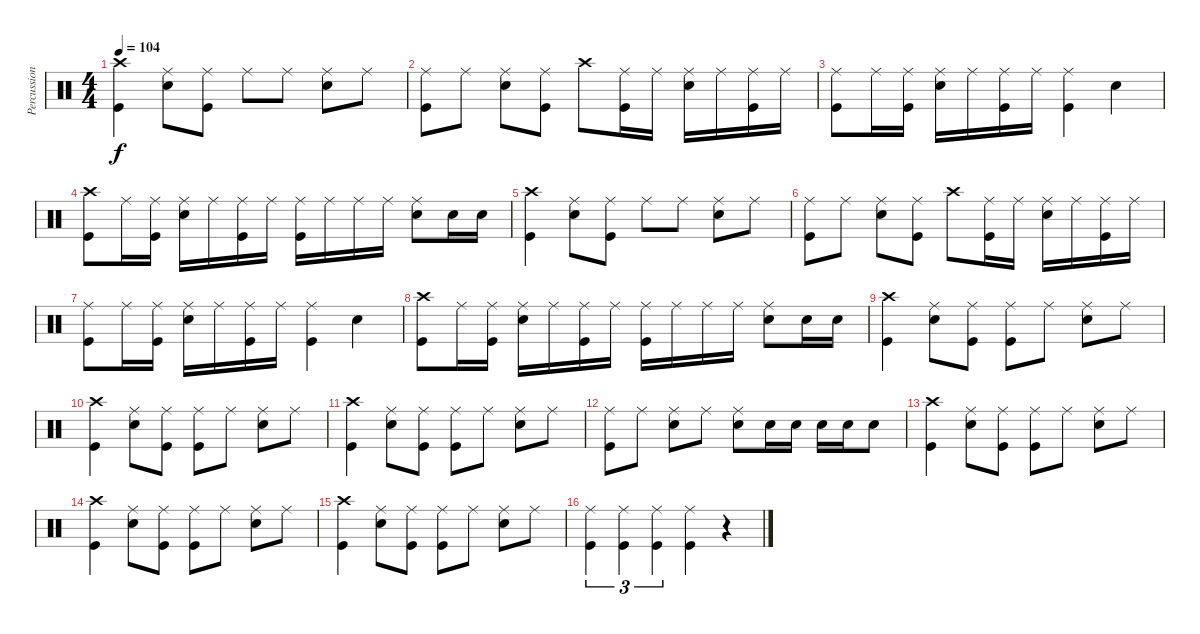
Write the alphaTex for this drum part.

\track ("Percussion" "Percussion") {instrument percussion}
\staff {score}
\articulation defaults
\ts (4 4)
\tempo 104
\clef neutral
\ks c
("Crash high (hit)" "Kick (hit)").4{dy f} ("Ride (middle)" "Snare (hit) 2").8 ("Ride (middle)" "Kick (hit)").8 "Ride (middle)".8 "Ride (middle)".8 ("Ride (middle)" "Snare (hit) 2").8 "Ride (middle)".8 |
("Ride (middle)" "Kick (hit)").8 "Ride (middle)".8 ("Ride (middle)" "Snare (hit) 2").8 ("Ride (middle)" "Kick (hit)").8 "Crash high (hit)".8 ("Ride (middle)" "Kick (hit)").16 "Ride (middle)".16 ("Ride (middle)" "Snare (hit) 2").16 "Ride (middle)".16 ("Ride (middle)" "Kick (hit)").16 "Ride (middle)".16 |
("Ride (middle)" "Kick (hit)").8 "Ride (middle)".16 ("Ride (middle)" "Kick (hit)").16 ("Ride (middle)" "Snare (hit) 2").16 "Ride (middle)".16 ("Ride (middle)" "Kick (hit)").16 "Ride (middle)".16 ("Ride (middle)" "Kick (hit)").4 "Snare (hit) 2".4 |
("Crash high (hit)" "Kick (hit)").8 "Ride (middle)".16 ("Ride (middle)" "Kick (hit)").16 ("Ride (middle)" "Snare (hit) 2").16 "Ride (middle)".16 ("Ride (middle)" "Kick (hit)").16 "Ride (middle)".16 ("Ride (middle)" "Kick (hit)").16 "Ride (middle)".16 "Ride (middle)".16 "Ride (middle)".16 ("Ride (middle)" "Snare (hit) 2").8 "Snare (hit) 2".16 "Snare (hit) 2".16 |
("Crash high (hit)" "Kick (hit)").4 ("Ride (middle)" "Snare (hit) 2").8 ("Ride (middle)" "Kick (hit)").8 "Ride (middle)".8 "Ride (middle)".8 ("Ride (middle)" "Snare (hit) 2").8 "Ride (middle)".8 |
("Ride (middle)" "Kick (hit)").8 "Ride (middle)".8 ("Ride (middle)" "Snare (hit) 2").8 ("Ride (middle)" "Kick (hit)").8 "Crash high (hit)".8 ("Ride (middle)" "Kick (hit)").16 "Ride (middle)".16 ("Ride (middle)" "Snare (hit) 2").16 "Ride (middle)".16 ("Ride (middle)" "Kick (hit)").16 "Ride (middle)".16 |
("Ride (middle)" "Kick (hit)").8 "Ride (middle)".16 ("Ride (middle)" "Kick (hit)").16 ("Ride (middle)" "Snare (hit) 2").16 "Ride (middle)".16 ("Ride (middle)" "Kick (hit)").16 "Ride (middle)".16 ("Ride (middle)" "Kick (hit)").4 "Snare (hit) 2".4 |
("Crash high (hit)" "Kick (hit)").8 "Ride (middle)".16 ("Ride (middle)" "Kick (hit)").16 ("Ride (middle)" "Snare (hit) 2").16 "Ride (middle)".16 ("Ride (middle)" "Kick (hit)").16 "Ride (middle)".16 ("Ride (middle)" "Kick (hit)").16 "Ride (middle)".16 "Ride (middle)".16 "Ride (middle)".16 ("Ride (middle)" "Snare (hit) 2").8 "Snare (hit) 2".16 "Snare (hit) 2".16 |
("Crash high (hit)" "Kick (hit)").4 ("Ride (middle)" "Snare (hit) 2").8 ("Ride (middle)" "Kick (hit)").8 ("Ride (middle)" "Kick (hit)").8 "Ride (middle)".8 ("Ride (middle)" "Snare (hit) 2").8 "Ride (middle)".8 |
("Crash high (hit)" "Kick (hit)").4 ("Ride (middle)" "Snare (hit) 2").8 ("Ride (middle)" "Kick (hit)").8 ("Ride (middle)" "Kick (hit)").8 "Ride (middle)".8 ("Ride (middle)" "Snare (hit) 2").8 "Ride (middle)".8 |
("Crash high (hit)" "Kick (hit)").4 ("Ride (middle)" "Snare (hit) 2").8 ("Ride (middle)" "Kick (hit)").8 ("Ride (middle)" "Kick (hit)").8 "Ride (middle)".8 ("Ride (middle)" "Snare (hit) 2").8 "Ride (middle)".8 |
("Ride (middle)" "Kick (hit)").8 "Ride (middle)".8 ("Ride (middle)" "Snare (hit) 2").8 "Ride (middle)".8 ("Ride (middle)" "Snare (hit) 2").8 "Snare (hit) 2".16 "Snare (hit) 2".16 "Snare (hit) 2".16 "Snare (hit) 2".16 "Snare (hit) 2".8 |
("Crash high (hit)" "Kick (hit)").4 ("Ride (middle)" "Snare (hit) 2").8 ("Ride (middle)" "Kick (hit)").8 ("Ride (middle)" "Kick (hit)").8 "Ride (middle)".8 ("Ride (middle)" "Snare (hit) 2").8 "Ride (middle)".8 |
("Crash high (hit)" "Kick (hit)").4 ("Ride (middle)" "Snare (hit) 2").8 ("Ride (middle)" "Kick (hit)").8 ("Ride (middle)" "Kick (hit)").8 "Ride (middle)".8 ("Ride (middle)" "Snare (hit) 2").8 "Ride (middle)".8 |
("Crash high (hit)" "Kick (hit)").4 ("Ride (middle)" "Snare (hit) 2").8 ("Ride (middle)" "Kick (hit)").8 ("Ride (middle)" "Kick (hit)").8 "Ride (middle)".8 ("Ride (middle)" "Snare (hit) 2").8 "Ride (middle)".8 |
("Kick (hit)" "Ride (middle)").4{tu (3 2)} ("Kick (hit)" "Ride (middle)").4{tu (3 2)} ("Kick (hit)" "Ride (middle)").4{tu (3 2)} ("Ride (middle)" "Kick (hit)").4 r.4
